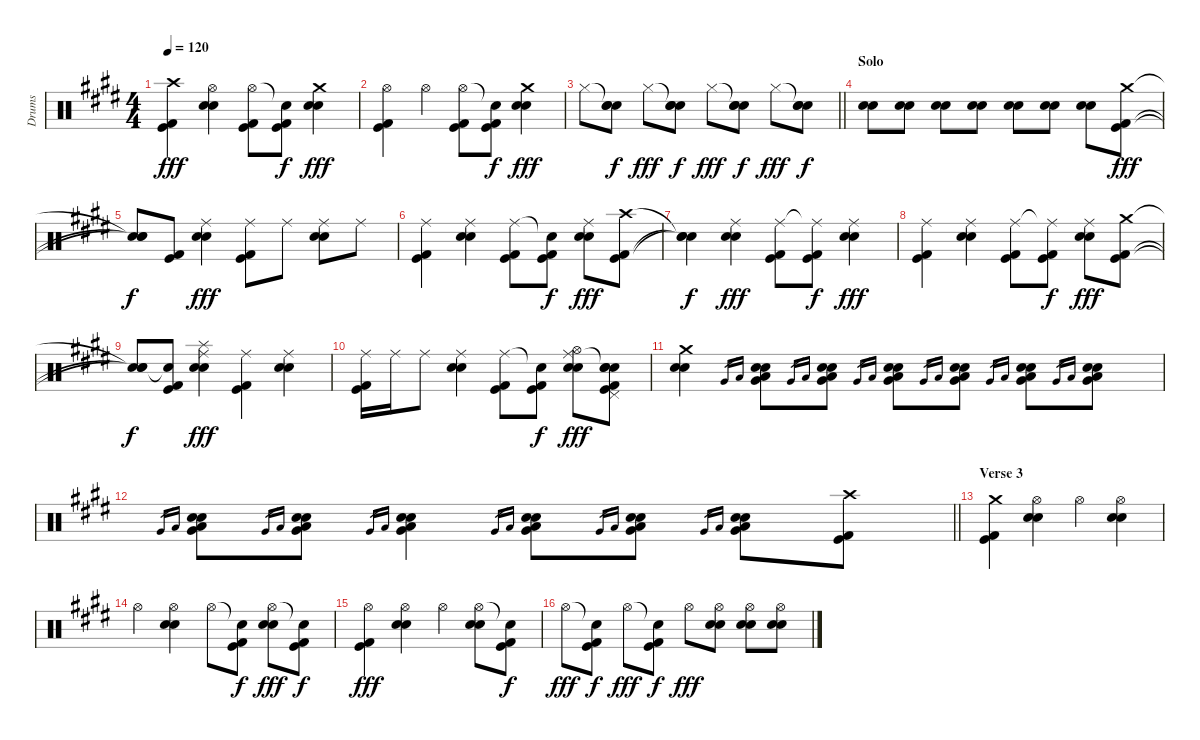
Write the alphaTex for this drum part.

\track ("Drums" "Drums") {instrument percussion}
\staff {score}
\articulation defaults
\ts (4 4)
\tempo 120
\clef neutral
\ks e
("Crash high (hit)" "Kick (hit)" "Kick (hit) 2").4{dy fff} ("Hi-Hat (open)" "Electric Snare (hit)" "Snare (hit) 2").4 ("Hi-Hat (open)" "Kick (hit)" "Kick (hit) 2").8 ("Snare (hit)"{t} "Kick (hit)" "Kick (hit) 2").8{dy f} ("Crash medium (hit)" "Electric Snare (hit)" "Snare (hit) 2").4{dy fff} |
("Hi-Hat (open)" "Kick (hit)" "Kick (hit) 2").4 "Hi-Hat (open)".4 ("Hi-Hat (open)" "Kick (hit)" "Kick (hit) 2").8 ("Snare (hit)"{t} "Kick (hit)" "Kick (hit) 2").8{dy f} ("Crash medium (hit)" "Electric Snare (hit)" "Snare (hit) 2").4{dy fff} |
\barLineRight lightlight "Hi-Hat (closed)".8
("Snare (hit)"{t} "Electric Snare (hit)" "Snare (hit) 2").8{dy f} "Hi-Hat (closed)".8{dy fff} ("Snare (hit)"{t} "Electric Snare (hit)" "Snare (hit) 2").8{dy f} "Hi-Hat (closed)".8{dy fff} ("Snare (hit)"{t} "Electric Snare (hit)" "Snare (hit) 2").8{dy f} "Hi-Hat (closed)".8{dy fff} ("Snare (hit)"{t} "Electric Snare (hit)" "Snare (hit) 2").8{dy f} |
\section ("" "Solo")
("Electric Snare (hit)" "Snare (hit) 2").8 ("Electric Snare (hit)" "Snare (hit) 2").8 ("Electric Snare (hit)" "Snare (hit) 2").8 ("Electric Snare (hit)" "Snare (hit) 2").8 ("Electric Snare (hit)" "Snare (hit) 2").8 ("Electric Snare (hit)" "Snare (hit) 2").8 ("Electric Snare (hit)" "Snare (hit) 2").8 ("Crash medium (hit)" "Kick (hit)" "Kick (hit) 2").8{dy fff} |
("Snare (hit)"{t} "Snare (hit)"{t} "Snare (hit)"{t}).8{dy f} ("Kick (hit)" "Kick (hit) 2").8 ("Ride (middle)" "Electric Snare (hit)" "Snare (hit) 2").4{dy fff} ("Ride (middle)" "Kick (hit)" "Kick (hit) 2").8 "Ride (middle)".8 ("Ride (middle)" "Electric Snare (hit)" "Snare (hit) 2").8 "Ride (middle)".8 |
("Ride (middle)" "Kick (hit)" "Kick (hit) 2").4 ("Ride (middle)" "Electric Snare (hit)" "Snare (hit) 2").4 ("Ride (middle)" "Kick (hit)" "Kick (hit) 2").8 ("Snare (hit)"{t} "Kick (hit)" "Kick (hit) 2").8{dy f} ("Ride (middle)" "Electric Snare (hit)" "Snare (hit) 2").8{dy fff} ("Crash high (hit)" "Kick (hit)" "Kick (hit) 2").8 |
("Snare (hit)"{t} "Snare (hit)"{t} "Snare (hit)"{t}).4{dy f} ("Ride (middle)" "Electric Snare (hit)" "Snare (hit) 2").4{dy fff} ("Ride (middle)" "Kick (hit)" "Kick (hit) 2").8 ("Ride (middle)"{t} "Kick (hit)" "Kick (hit) 2").8{dy f} ("Ride (middle)" "Electric Snare (hit)" "Snare (hit) 2").4{dy fff} |
("Ride (middle)" "Kick (hit)" "Kick (hit) 2").4 ("Ride (middle)" "Electric Snare (hit)" "Snare (hit) 2").4 ("Ride (middle)" "Kick (hit)" "Kick (hit) 2").8 ("Ride (middle)"{t} "Kick (hit)" "Kick (hit) 2").8{dy f} ("Ride (middle)" "Electric Snare (hit)" "Snare (hit) 2").8{dy fff} ("Crash medium (hit)" "Kick (hit)" "Kick (hit) 2").8 |
("Snare (hit)"{t} "Snare (hit)"{t} "Snare (hit)"{t}).8{dy f} ("Snare (hit)"{t} "Kick (hit)" "Kick (hit) 2").8 ("Ride (middle)" "Splash (hit)" "Electric Snare (hit)" "Snare (hit) 2").4{dy fff} ("Ride (middle)" "Kick (hit)" "Kick (hit) 2").4 ("Ride (middle)" "Electric Snare (hit)" "Snare (hit) 2").4 |
("Ride (middle)" "Kick (hit)" "Kick (hit) 2").16 "Ride (middle)".16 "Ride (middle)".8 ("Ride (middle)" "Electric Snare (hit)" "Snare (hit) 2").4 ("Ride (middle)" "Kick (hit)" "Kick (hit) 2").8 ("Snare (hit)"{t} "Kick (hit)" "Kick (hit) 2").8{dy f} ("Ride (middle)" "Hi-Hat (open)" "Electric Snare (hit)" "Snare (hit) 2").8{dy fff} ("Snare (hit)"{t} "Pedal Hi-Hat (hit)" "Electric Snare (hit)" "Snare (hit) 2" "Kick (hit)" "Kick (hit) 2").8 |
("Crash medium (hit)" "Electric Snare (hit)" "Snare (hit) 2").4 "Very Low Tom (hit)".16{gr} "Low Floor Tom (hit)".16{gr} ("Electric Snare (hit)" "Snare (hit) 2" "Very Low Tom (hit)" "Low Floor Tom (hit)").8 "Very Low Tom (hit)".16{gr} "Low Floor Tom (hit)".16{gr} ("Electric Snare (hit)" "Snare (hit) 2" "Very Low Tom (hit)" "Low Floor Tom (hit)").8 "Very Low Tom (hit)".16{gr} "Low Floor Tom (hit)".16{gr} ("Electric Snare (hit)" "Snare (hit) 2" "Very Low Tom (hit)" "Low Floor Tom (hit)").8 "Very Low Tom (hit)".16{gr} "Low Floor Tom (hit)".16{gr} ("Electric Snare (hit)" "Snare (hit) 2" "Very Low Tom (hit)" "Low Floor Tom (hit)").8 "Very Low Tom (hit)".16{gr} "Low Floor Tom (hit)".16{gr} ("Electric Snare (hit)" "Snare (hit) 2" "Very Low Tom (hit)" "Low Floor Tom (hit)").8 "Very Low Tom (hit)".16{gr} "Low Floor Tom (hit)".16{gr} ("Electric Snare (hit)" "Snare (hit) 2" "Very Low Tom (hit)" "Low Floor Tom (hit)").8 |
\barLineRight lightlight "Very Low Tom (hit)".16{gr} "Low Floor Tom (hit)".16{gr}
("Electric Snare (hit)" "Snare (hit) 2" "Very Low Tom (hit)" "Low Floor Tom (hit)").8 "Very Low Tom (hit)".16{gr} "Low Floor Tom (hit)".16{gr} ("Electric Snare (hit)" "Snare (hit) 2" "Very Low Tom (hit)" "Low Floor Tom (hit)").8 "Very Low Tom (hit)".16{gr} "Low Floor Tom (hit)".16{gr} ("Electric Snare (hit)" "Snare (hit) 2" "Very Low Tom (hit)" "Low Floor Tom (hit)").4 "Very Low Tom (hit)".16{gr} "Low Floor Tom (hit)".16{gr} ("Electric Snare (hit)" "Snare (hit) 2" "Very Low Tom (hit)" "Low Floor Tom (hit)").8 "Very Low Tom (hit)".16{gr} "Low Floor Tom (hit)".16{gr} ("Electric Snare (hit)" "Snare (hit) 2" "Very Low Tom (hit)" "Low Floor Tom (hit)").8 "Very Low Tom (hit)".16{gr} "Low Floor Tom (hit)".16{gr} ("Electric Snare (hit)" "Snare (hit) 2" "Very Low Tom (hit)" "Low Floor Tom (hit)").8 ("Crash high (hit)" "Kick (hit)" "Kick (hit) 2").8 |
\section ("" "Verse 3")
("Crash medium (hit)" "Kick (hit)" "Kick (hit) 2").4 ("Hi-Hat (open)" "Electric Snare (hit)" "Snare (hit) 2").4 "Hi-Hat (open)".4 ("Hi-Hat (open)" "Electric Snare (hit)" "Snare (hit) 2").4 |
"Hi-Hat (open)".4 ("Hi-Hat (open)" "Electric Snare (hit)" "Snare (hit) 2").4 "Hi-Hat (open)".8 ("Snare (hit)"{t} "Kick (hit)" "Kick (hit) 2").8{dy f} ("Hi-Hat (open)" "Electric Snare (hit)" "Snare (hit) 2").8{dy fff} ("Snare (hit)"{t} "Kick (hit)" "Kick (hit) 2").8{dy f} |
("Hi-Hat (open)" "Kick (hit)" "Kick (hit) 2").4{dy fff} ("Hi-Hat (open)" "Electric Snare (hit)" "Snare (hit) 2").4 "Hi-Hat (open)".4 ("Hi-Hat (open)" "Electric Snare (hit)" "Snare (hit) 2").8 ("Snare (hit)"{t} "Kick (hit)" "Kick (hit) 2").8{dy f} |
"Hi-Hat (open)".8{dy fff} ("Snare (hit)"{t} "Kick (hit)" "Kick (hit) 2").8{dy f} "Hi-Hat (open)".8{dy fff} ("Snare (hit)"{t} "Kick (hit)" "Kick (hit) 2").8{dy f} "Hi-Hat (open)".8{dy fff} ("Hi-Hat (open)" "Electric Snare (hit)" "Snare (hit) 2").8 ("Hi-Hat (open)" "Electric Snare (hit)" "Snare (hit) 2").8 ("Hi-Hat (open)" "Electric Snare (hit)" "Snare (hit) 2").8
